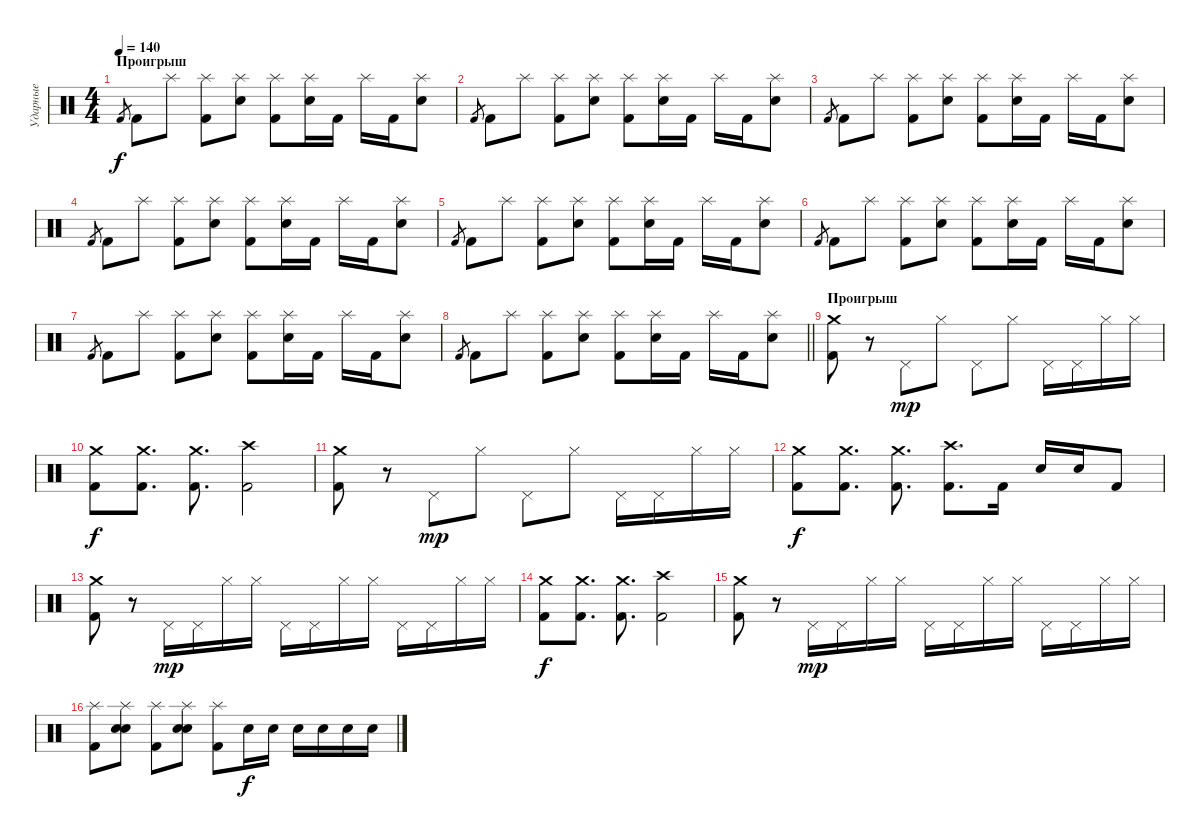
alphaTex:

\track ("Ударные" "Ударные") {instrument percussion}
\staff {score}
\articulation defaults
\ts (4 4)
\section ("" "Проигрыш")
\tempo 140
\clef neutral
\ks c "Kick (hit) 2".8{gr dy f} "Kick (hit) 2".8 "Splash (hit)".8
("Splash (hit)" "Kick (hit) 2").8 ("Splash (hit)" "Electric Snare (hit)").8 ("Splash (hit)" "Kick (hit) 2").8 ("Splash (hit)" "Electric Snare (hit)").16 "Kick (hit) 2".16 "Splash (hit)".16 "Kick (hit) 2".16 ("Splash (hit)" "Electric Snare (hit)").8 |
"Kick (hit) 2".8{gr} "Kick (hit) 2".8 "Splash (hit)".8 ("Splash (hit)" "Kick (hit) 2").8 ("Splash (hit)" "Electric Snare (hit)").8 ("Splash (hit)" "Kick (hit) 2").8 ("Splash (hit)" "Electric Snare (hit)").16 "Kick (hit) 2".16 "Splash (hit)".16 "Kick (hit) 2".16 ("Splash (hit)" "Electric Snare (hit)").8 |
"Kick (hit) 2".8{gr} "Kick (hit) 2".8 "Splash (hit)".8 ("Splash (hit)" "Kick (hit) 2").8 ("Splash (hit)" "Electric Snare (hit)").8 ("Splash (hit)" "Kick (hit) 2").8 ("Splash (hit)" "Electric Snare (hit)").16 "Kick (hit) 2".16 "Splash (hit)".16 "Kick (hit) 2".16 ("Splash (hit)" "Electric Snare (hit)").8 |
"Kick (hit) 2".8{gr} "Kick (hit) 2".8 "Splash (hit)".8 ("Splash (hit)" "Kick (hit) 2").8 ("Splash (hit)" "Electric Snare (hit)").8 ("Splash (hit)" "Kick (hit) 2").8 ("Splash (hit)" "Electric Snare (hit)").16 "Kick (hit) 2".16 "Splash (hit)".16 "Kick (hit) 2".16 ("Splash (hit)" "Electric Snare (hit)").8 |
"Kick (hit) 2".8{gr} "Kick (hit) 2".8 "Splash (hit)".8 ("Splash (hit)" "Kick (hit) 2").8 ("Splash (hit)" "Electric Snare (hit)").8 ("Splash (hit)" "Kick (hit) 2").8 ("Splash (hit)" "Electric Snare (hit)").16 "Kick (hit) 2".16 "Splash (hit)".16 "Kick (hit) 2".16 ("Splash (hit)" "Electric Snare (hit)").8 |
"Kick (hit) 2".8{gr} "Kick (hit) 2".8 "Splash (hit)".8 ("Splash (hit)" "Kick (hit) 2").8 ("Splash (hit)" "Electric Snare (hit)").8 ("Splash (hit)" "Kick (hit) 2").8 ("Splash (hit)" "Electric Snare (hit)").16 "Kick (hit) 2".16 "Splash (hit)".16 "Kick (hit) 2".16 ("Splash (hit)" "Electric Snare (hit)").8 |
"Kick (hit) 2".8{gr} "Kick (hit) 2".8 "Splash (hit)".8 ("Splash (hit)" "Kick (hit) 2").8 ("Splash (hit)" "Electric Snare (hit)").8 ("Splash (hit)" "Kick (hit) 2").8 ("Splash (hit)" "Electric Snare (hit)").16 "Kick (hit) 2".16 "Splash (hit)".16 "Kick (hit) 2".16 ("Splash (hit)" "Electric Snare (hit)").8 |
\barLineRight lightlight "Kick (hit) 2".8{gr} "Kick (hit) 2".8 "Splash (hit)".8
("Splash (hit)" "Kick (hit) 2").8 ("Splash (hit)" "Electric Snare (hit)").8 ("Splash (hit)" "Kick (hit) 2").8 ("Splash (hit)" "Electric Snare (hit)").16 "Kick (hit) 2".16 "Splash (hit)".16 "Kick (hit) 2".16 ("Splash (hit)" "Electric Snare (hit)").8 |
\section ("" "Проигрыш")
("Crash medium (hit)" "Kick (hit) 2").8 r.8 "Pedal Hi-Hat (hit)".8{dy mp} "Hi-Hat (closed)".8 "Pedal Hi-Hat (hit)".8 "Hi-Hat (closed)".8 "Pedal Hi-Hat (hit)".16 "Pedal Hi-Hat (hit)".16 "Hi-Hat (closed)".16 "Hi-Hat (closed)".16 |
("Crash medium (hit)" "Kick (hit) 2").8{dy f} ("Crash medium (hit)" "Kick (hit) 2").8{d} ("Crash medium (hit)" "Kick (hit) 2").8{d} ("Crash high (hit)" "Kick (hit) 2").2 |
("Crash medium (hit)" "Kick (hit) 2").8 r.8 "Pedal Hi-Hat (hit)".8{dy mp} "Hi-Hat (closed)".8 "Pedal Hi-Hat (hit)".8 "Hi-Hat (closed)".8 "Pedal Hi-Hat (hit)".16 "Pedal Hi-Hat (hit)".16 "Hi-Hat (closed)".16 "Hi-Hat (closed)".16 |
("Crash medium (hit)" "Kick (hit) 2").8{dy f} ("Crash medium (hit)" "Kick (hit) 2").8{d} ("Crash medium (hit)" "Kick (hit) 2").8{d} ("Crash high (hit)" "Kick (hit) 2").8{d} "Kick (hit) 2".16 "Electric Snare (hit)".16 "Electric Snare (hit)".16 "Kick (hit) 2".8 |
("Crash medium (hit)" "Kick (hit) 2").8 r.8 "Pedal Hi-Hat (hit)".16{dy mp} "Pedal Hi-Hat (hit)".16 "Hi-Hat (closed)".16 "Hi-Hat (closed)".16 "Pedal Hi-Hat (hit)".16 "Pedal Hi-Hat (hit)".16 "Hi-Hat (closed)".16 "Hi-Hat (closed)".16 "Pedal Hi-Hat (hit)".16 "Pedal Hi-Hat (hit)".16 "Hi-Hat (closed)".16 "Hi-Hat (closed)".16 |
("Crash medium (hit)" "Kick (hit) 2").8{dy f} ("Crash medium (hit)" "Kick (hit) 2").8{d} ("Crash medium (hit)" "Kick (hit) 2").8{d} ("Crash high (hit)" "Kick (hit) 2").2 |
("Crash medium (hit)" "Kick (hit) 2").8 r.8 "Pedal Hi-Hat (hit)".16{dy mp} "Pedal Hi-Hat (hit)".16 "Hi-Hat (closed)".16 "Hi-Hat (closed)".16 "Pedal Hi-Hat (hit)".16 "Pedal Hi-Hat (hit)".16 "Hi-Hat (closed)".16 "Hi-Hat (closed)".16 "Pedal Hi-Hat (hit)".16 "Pedal Hi-Hat (hit)".16 "Hi-Hat (closed)".16 "Hi-Hat (closed)".16 |
("Splash (hit)" "Kick (hit) 2").8 ("Splash (hit)" "Electric Snare (hit)" "Snare (hit) 2").8 ("Splash (hit)" "Kick (hit) 2").8 ("Splash (hit)" "Electric Snare (hit)" "Snare (hit) 2").8 ("Splash (hit)" "Kick (hit) 2").8 "Electric Snare (hit)".16{dy f} "Electric Snare (hit)".16 "Electric Snare (hit)".16 "Electric Snare (hit)".16 "Electric Snare (hit)".16 "Electric Snare (hit)".16
